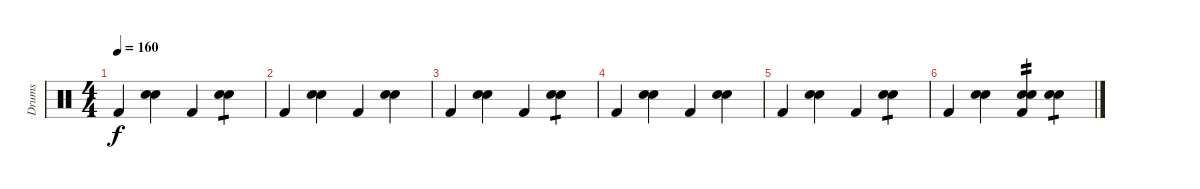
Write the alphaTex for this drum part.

\track ("Drums" "Drums") {instrument percussion}
\staff {score}
\articulation defaults
\ts (4 4)
\tempo 160
\clef neutral
\ks c "Kick (hit) 2".4{dy f}
("Snare (hit) 2" "Electric Snare (hit)").4 "Kick (hit) 2".4 ("Snare (hit) 2" "Electric Snare (hit)").4{tp 1} |
"Kick (hit) 2".4 ("Snare (hit) 2" "Electric Snare (hit)").4 "Kick (hit) 2".4 ("Snare (hit) 2" "Electric Snare (hit)").4 |
"Kick (hit) 2".4 ("Snare (hit) 2" "Electric Snare (hit)").4 "Kick (hit) 2".4 ("Snare (hit) 2" "Electric Snare (hit)").4{tp 1} |
"Kick (hit) 2".4 ("Snare (hit) 2" "Electric Snare (hit)").4 "Kick (hit) 2".4 ("Snare (hit) 2" "Electric Snare (hit)").4 |
"Kick (hit) 2".4 ("Snare (hit) 2" "Electric Snare (hit)").4 "Kick (hit) 2".4 ("Snare (hit) 2" "Electric Snare (hit)").4{tp 1} |
"Kick (hit) 2".4 ("Snare (hit) 2" "Electric Snare (hit)").4 ("Kick (hit) 2" "Snare (hit) 2" "Electric Snare (hit)").4{tp 2} ("Snare (hit) 2" "Electric Snare (hit)").4{tp 1}
